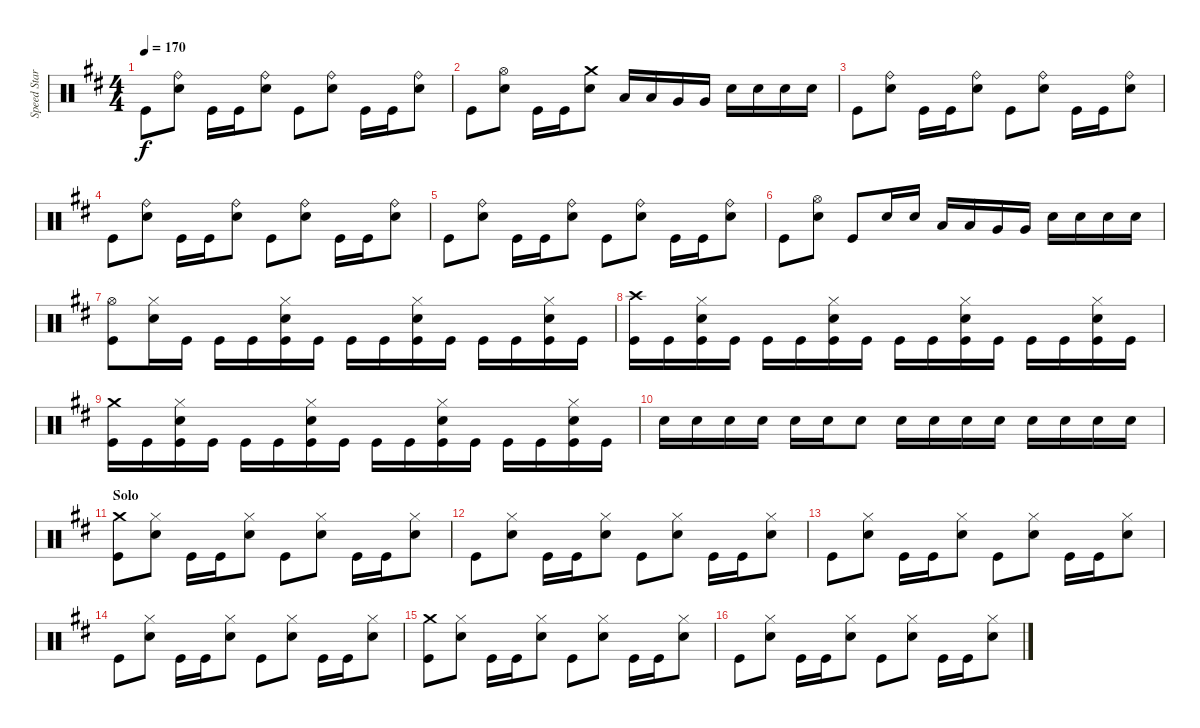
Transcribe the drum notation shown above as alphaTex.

\track ("Speed Star" "Speed Star") {instrument percussion}
\staff {score}
\articulation defaults
\ts (4 4)
\tempo 170
\clef neutral
\ks d "Kick (hit)".8{dy f}
("Snare (hit) 2" "Ride (bell)").8 "Kick (hit)".16 "Kick (hit)".16 ("Snare (hit) 2" "Ride (bell)").8 "Kick (hit)".8 ("Snare (hit) 2" "Ride (bell)").8 "Kick (hit)".16 "Kick (hit)".16 ("Snare (hit) 2" "Ride (bell)").8 |
"Kick (hit)".8 ("Snare (hit) 2" "Hi-Hat (open)").8 "Kick (hit)".16 "Kick (hit)".16 ("Snare (hit) 2" "Crash medium (hit)").8 "Low Tom (hit)".16 "Low Tom (hit)".16 "Very Low Tom (hit)".16 "Very Low Tom (hit)".16 "Snare (hit) 2".16 "Snare (hit) 2".16 "Snare (hit) 2".16 "Snare (hit) 2".16 |
"Kick (hit)".8 ("Snare (hit) 2" "Ride (bell)").8 "Kick (hit)".16 "Kick (hit)".16 ("Snare (hit) 2" "Ride (bell)").8 "Kick (hit)".8 ("Snare (hit) 2" "Ride (bell)").8 "Kick (hit)".16 "Kick (hit)".16 ("Snare (hit) 2" "Ride (bell)").8 |
"Kick (hit)".8 ("Snare (hit) 2" "Ride (bell)").8 "Kick (hit)".16 "Kick (hit)".16 ("Snare (hit) 2" "Ride (bell)").8 "Kick (hit)".8 ("Snare (hit) 2" "Ride (bell)").8 "Kick (hit)".16 "Kick (hit)".16 ("Snare (hit) 2" "Ride (bell)").8 |
"Kick (hit)".8 ("Snare (hit) 2" "Ride (bell)").8 "Kick (hit)".16 "Kick (hit)".16 ("Snare (hit) 2" "Ride (bell)").8 "Kick (hit)".8 ("Snare (hit) 2" "Ride (bell)").8 "Kick (hit)".16 "Kick (hit)".16 ("Snare (hit) 2" "Ride (bell)").8 |
"Kick (hit)".8 ("Snare (hit) 2" "Hi-Hat (open)").8 "Kick (hit)".8 "Snare (hit) 2".16 "Snare (hit) 2".16 "Low Tom (hit)".16 "Low Tom (hit)".16 "Very Low Tom (hit)".16 "Very Low Tom (hit)".16 "Snare (hit) 2".16 "Snare (hit) 2".16 "Snare (hit) 2".16 "Snare (hit) 2".16 |
("Kick (hit)" "Hi-Hat (open)").8 ("Snare (hit) 2" "Hi-Hat (closed)").16 "Kick (hit)".16 "Kick (hit)".16 "Kick (hit)".16 ("Kick (hit)" "Snare (hit) 2" "Hi-Hat (closed)").16 "Kick (hit)".16 "Kick (hit)".16 "Kick (hit)".16 ("Kick (hit)" "Snare (hit) 2" "Hi-Hat (closed)").16 "Kick (hit)".16 "Kick (hit)".16 "Kick (hit)".16 ("Kick (hit)" "Snare (hit) 2" "Hi-Hat (closed)").16 "Kick (hit)".16 |
("Kick (hit)" "Crash high (hit)").16 "Kick (hit)".16 ("Kick (hit)" "Snare (hit) 2" "Hi-Hat (closed)").16 "Kick (hit)".16 "Kick (hit)".16 "Kick (hit)".16 ("Kick (hit)" "Snare (hit) 2" "Hi-Hat (closed)").16 "Kick (hit)".16 "Kick (hit)".16 "Kick (hit)".16 ("Kick (hit)" "Snare (hit) 2" "Hi-Hat (closed)").16 "Kick (hit)".16 "Kick (hit)".16 "Kick (hit)".16 ("Kick (hit)" "Snare (hit) 2" "Hi-Hat (closed)").16 "Kick (hit)".16 |
("Kick (hit)" "Crash medium (hit)").16 "Kick (hit)".16 ("Kick (hit)" "Snare (hit) 2" "Hi-Hat (closed)").16 "Kick (hit)".16 "Kick (hit)".16 "Kick (hit)".16 ("Kick (hit)" "Snare (hit) 2" "Hi-Hat (closed)").16 "Kick (hit)".16 "Kick (hit)".16 "Kick (hit)".16 ("Kick (hit)" "Snare (hit) 2" "Hi-Hat (closed)").16 "Kick (hit)".16 "Kick (hit)".16 "Kick (hit)".16 ("Kick (hit)" "Snare (hit) 2" "Hi-Hat (closed)").16 "Kick (hit)".16 |
"Snare (hit) 2".16 "Snare (hit) 2".16 "Snare (hit) 2".16 "Snare (hit) 2".16 "Snare (hit) 2".16 "Snare (hit) 2".16 "Snare (hit) 2".8 "Snare (hit) 2".16 "Snare (hit) 2".16 "Snare (hit) 2".16 "Snare (hit) 2".16 "Snare (hit) 2".16 "Snare (hit) 2".16 "Snare (hit) 2".16 "Snare (hit) 2".16 |
\section ("" "Solo")
("Kick (hit)" "Crash medium (hit)").8 ("Snare (hit) 2" "Hi-Hat (closed)").8 "Kick (hit)".16 "Kick (hit)".16 ("Snare (hit) 2" "Hi-Hat (closed)").8 "Kick (hit)".8 ("Snare (hit) 2" "Hi-Hat (closed)").8 "Kick (hit)".16 "Kick (hit)".16 ("Snare (hit) 2" "Hi-Hat (closed)").8 |
"Kick (hit)".8 ("Snare (hit) 2" "Hi-Hat (closed)").8 "Kick (hit)".16 "Kick (hit)".16 ("Snare (hit) 2" "Hi-Hat (closed)").8 "Kick (hit)".8 ("Snare (hit) 2" "Hi-Hat (closed)").8 "Kick (hit)".16 "Kick (hit)".16 ("Snare (hit) 2" "Hi-Hat (closed)").8 |
"Kick (hit)".8 ("Snare (hit) 2" "Hi-Hat (closed)").8 "Kick (hit)".16 "Kick (hit)".16 ("Snare (hit) 2" "Hi-Hat (closed)").8 "Kick (hit)".8 ("Snare (hit) 2" "Hi-Hat (closed)").8 "Kick (hit)".16 "Kick (hit)".16 ("Snare (hit) 2" "Hi-Hat (closed)").8 |
"Kick (hit)".8 ("Snare (hit) 2" "Hi-Hat (closed)").8 "Kick (hit)".16 "Kick (hit)".16 ("Snare (hit) 2" "Hi-Hat (closed)").8 "Kick (hit)".8 ("Snare (hit) 2" "Hi-Hat (closed)").8 "Kick (hit)".16 "Kick (hit)".16 ("Snare (hit) 2" "Hi-Hat (closed)").8 |
("Kick (hit)" "Crash medium (hit)").8 ("Snare (hit) 2" "Hi-Hat (closed)").8 "Kick (hit)".16 "Kick (hit)".16 ("Snare (hit) 2" "Hi-Hat (closed)").8 "Kick (hit)".8 ("Snare (hit) 2" "Hi-Hat (closed)").8 "Kick (hit)".16 "Kick (hit)".16 ("Snare (hit) 2" "Hi-Hat (closed)").8 |
"Kick (hit)".8 ("Snare (hit) 2" "Hi-Hat (closed)").8 "Kick (hit)".16 "Kick (hit)".16 ("Snare (hit) 2" "Hi-Hat (closed)").8 "Kick (hit)".8 ("Snare (hit) 2" "Hi-Hat (closed)").8 "Kick (hit)".16 "Kick (hit)".16 ("Snare (hit) 2" "Hi-Hat (closed)").8
